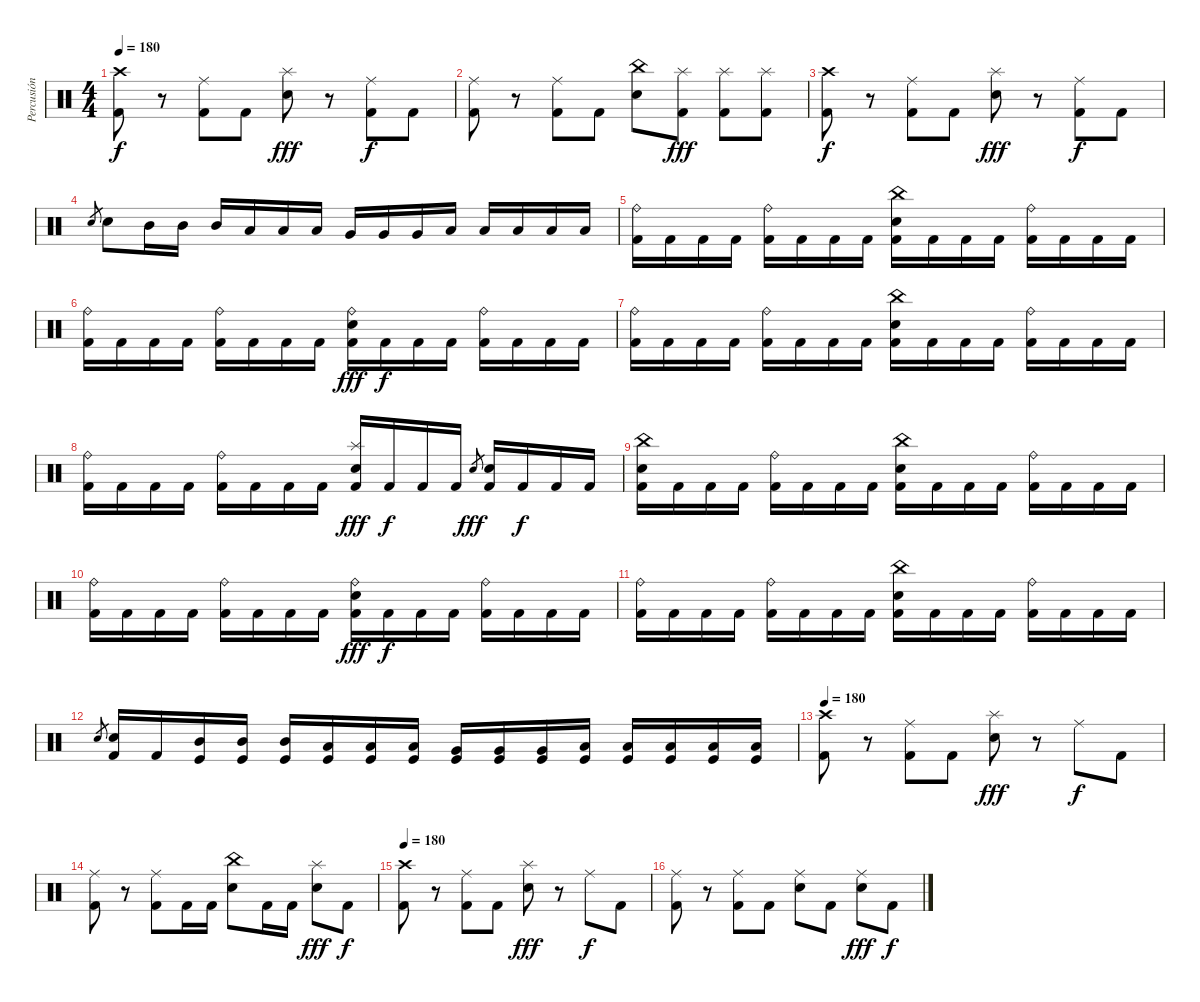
\track ("Percusión" "Percusión") {instrument percussion}
\staff {score}
\articulation defaults
\ts (4 4)
\tempo 180
\clef neutral
\ks c
("Crash high (hit)" "Kick (hit) 2").8{dy f} r.8 ("Ride (middle)" "Kick (hit) 2").8 "Kick (hit) 2".8 ("Splash (hit)" "Snare (hit) 2").8{dy fff} r.8 ("Ride (middle)" "Kick (hit) 2").8{dy f} "Kick (hit) 2".8 |
("Ride (middle)" "Kick (hit) 2").8 r.8 ("Ride (middle)" "Kick (hit) 2").8 "Kick (hit) 2".8 ("China (hit)" "Snare (hit) 2").8 ("Splash (hit)" "Kick (hit) 2").8{dy fff} ("Splash (hit)" "Kick (hit) 2").8 ("Splash (hit)" "Kick (hit) 2").8 |
("Crash high (hit)" "Kick (hit) 2").8{dy f} r.8 ("Ride (middle)" "Kick (hit) 2").8 "Kick (hit) 2".8 ("Splash (hit)" "Snare (hit) 2").8{dy fff} r.8 ("Ride (middle)" "Kick (hit) 2").8{dy f} "Kick (hit) 2".8 |
"Snare (hit) 2".8{gr} "Snare (hit) 2".8 "Mid Tom (hit)".16 "Mid Tom (hit)".16 "Mid Tom (hit)".16 "Low Tom (hit)".16 "Low Tom (hit)".16 "Low Tom (hit)".16 "Very Low Tom (hit)".16 "Very Low Tom (hit)".16 "Very Low Tom (hit)".16 "Low Floor Tom (hit)".16 "Low Floor Tom (hit)".16 "Low Floor Tom (hit)".16 "Low Floor Tom (hit)".16 "Low Floor Tom (hit)".16 |
("Ride (bell)" "Kick (hit) 2").16 "Kick (hit) 2".16 "Kick (hit) 2".16 "Kick (hit) 2".16 ("Ride (bell)" "Kick (hit) 2").16 "Kick (hit) 2".16 "Kick (hit) 2".16 "Kick (hit) 2".16 ("China (hit)" "Snare (hit) 2" "Kick (hit) 2").16 "Kick (hit) 2".16 "Kick (hit) 2".16 "Kick (hit) 2".16 ("Ride (bell)" "Kick (hit) 2").16 "Kick (hit) 2".16 "Kick (hit) 2".16 "Kick (hit) 2".16 |
("Ride (bell)" "Kick (hit) 2").16 "Kick (hit) 2".16 "Kick (hit) 2".16 "Kick (hit) 2".16 ("Ride (bell)" "Kick (hit) 2").16 "Kick (hit) 2".16 "Kick (hit) 2".16 "Kick (hit) 2".16 ("Ride (bell)" "Snare (hit) 2" "Kick (hit) 2").16{dy fff} "Kick (hit) 2".16{dy f} "Kick (hit) 2".16 "Kick (hit) 2".16 ("Ride (bell)" "Kick (hit) 2").16 "Kick (hit) 2".16 "Kick (hit) 2".16 "Kick (hit) 2".16 |
("Ride (bell)" "Kick (hit) 2").16 "Kick (hit) 2".16 "Kick (hit) 2".16 "Kick (hit) 2".16 ("Ride (bell)" "Kick (hit) 2").16 "Kick (hit) 2".16 "Kick (hit) 2".16 "Kick (hit) 2".16 ("China (hit)" "Snare (hit) 2" "Kick (hit) 2").16 "Kick (hit) 2".16 "Kick (hit) 2".16 "Kick (hit) 2".16 ("Ride (bell)" "Kick (hit) 2").16 "Kick (hit) 2".16 "Kick (hit) 2".16 "Kick (hit) 2".16 |
("Ride (bell)" "Kick (hit) 2").16 "Kick (hit) 2".16 "Kick (hit) 2".16 "Kick (hit) 2".16 ("Ride (bell)" "Kick (hit) 2").16 "Kick (hit) 2".16 "Kick (hit) 2".16 "Kick (hit) 2".16 ("Splash (hit)" "Snare (hit) 2" "Kick (hit) 2").16{dy fff} "Kick (hit) 2".16{dy f} "Kick (hit) 2".16 "Kick (hit) 2".16 "Snare (hit) 2".8{gr dy fff} ("Snare (hit) 2" "Kick (hit) 2").16 "Kick (hit) 2".16{dy f} "Kick (hit) 2".16 "Kick (hit) 2".16 |
("China (hit)" "Snare (hit) 2" "Kick (hit) 2").16 "Kick (hit) 2".16 "Kick (hit) 2".16 "Kick (hit) 2".16 ("Ride (bell)" "Kick (hit) 2").16 "Kick (hit) 2".16 "Kick (hit) 2".16 "Kick (hit) 2".16 ("China (hit)" "Snare (hit) 2" "Kick (hit) 2").16 "Kick (hit) 2".16 "Kick (hit) 2".16 "Kick (hit) 2".16 ("Ride (bell)" "Kick (hit) 2").16 "Kick (hit) 2".16 "Kick (hit) 2".16 "Kick (hit) 2".16 |
("Ride (bell)" "Kick (hit) 2").16 "Kick (hit) 2".16 "Kick (hit) 2".16 "Kick (hit) 2".16 ("Ride (bell)" "Kick (hit) 2").16 "Kick (hit) 2".16 "Kick (hit) 2".16 "Kick (hit) 2".16 ("Ride (bell)" "Snare (hit) 2" "Kick (hit) 2").16{dy fff} "Kick (hit) 2".16{dy f} "Kick (hit) 2".16 "Kick (hit) 2".16 ("Ride (bell)" "Kick (hit) 2").16 "Kick (hit) 2".16 "Kick (hit) 2".16 "Kick (hit) 2".16 |
("Ride (bell)" "Kick (hit) 2").16 "Kick (hit) 2".16 "Kick (hit) 2".16 "Kick (hit) 2".16 ("Ride (bell)" "Kick (hit) 2").16 "Kick (hit) 2".16 "Kick (hit) 2".16 "Kick (hit) 2".16 ("China (hit)" "Snare (hit) 2" "Kick (hit) 2").16 "Kick (hit) 2".16 "Kick (hit) 2".16 "Kick (hit) 2".16 ("Ride (bell)" "Kick (hit) 2").16 "Kick (hit) 2".16 "Kick (hit) 2".16 "Kick (hit) 2".16 |
"Snare (hit) 2".8{gr} ("Snare (hit) 2" "Kick (hit) 2").16 "Kick (hit) 2".16 ("Mid Tom (hit)" "Kick (hit)").16 ("Mid Tom (hit)" "Kick (hit)").16 ("Mid Tom (hit)" "Kick (hit)").16 ("Low Tom (hit)" "Kick (hit)").16 ("Low Tom (hit)" "Kick (hit)").16 ("Low Tom (hit)" "Kick (hit)").16 ("Very Low Tom (hit)" "Kick (hit)").16 ("Very Low Tom (hit)" "Kick (hit)").16 ("Very Low Tom (hit)" "Kick (hit)").16 ("Low Floor Tom (hit)" "Kick (hit)").16 ("Low Floor Tom (hit)" "Kick (hit)").16 ("Low Floor Tom (hit)" "Kick (hit)").16 ("Low Floor Tom (hit)" "Kick (hit)").16 ("Low Floor Tom (hit)" "Kick (hit)").16 |
\tempo 180
("Crash high (hit)" "Kick (hit) 2").8 r.8 ("Ride (middle)" "Kick (hit) 2").8 "Kick (hit) 2".8 ("Splash (hit)" "Snare (hit) 2").8{dy fff} r.8 "Ride (middle)".8{dy f} "Kick (hit) 2".8 |
("Ride (middle)" "Kick (hit) 2").8 r.8 ("Ride (middle)" "Kick (hit) 2").8 "Kick (hit) 2".16 "Kick (hit) 2".16 ("China (hit)" "Snare (hit) 2").8 "Kick (hit) 2".16 "Kick (hit) 2".16 ("Splash (hit)" "Snare (hit) 2").8{dy fff} "Kick (hit) 2".8{dy f} |
\tempo 180
("Crash high (hit)" "Kick (hit) 2").8 r.8 ("Ride (middle)" "Kick (hit) 2").8 "Kick (hit) 2".8 ("Splash (hit)" "Snare (hit) 2").8{dy fff} r.8 "Ride (middle)".8{dy f} "Kick (hit) 2".8 |
("Ride (middle)" "Kick (hit) 2").8 r.8 ("Ride (middle)" "Kick (hit) 2").8 "Kick (hit) 2".8 ("Ride (middle)" "Snare (hit) 2").8 "Kick (hit) 2".8 ("Ride (middle)" "Snare (hit) 2").8{dy fff} "Kick (hit) 2".8{dy f}
